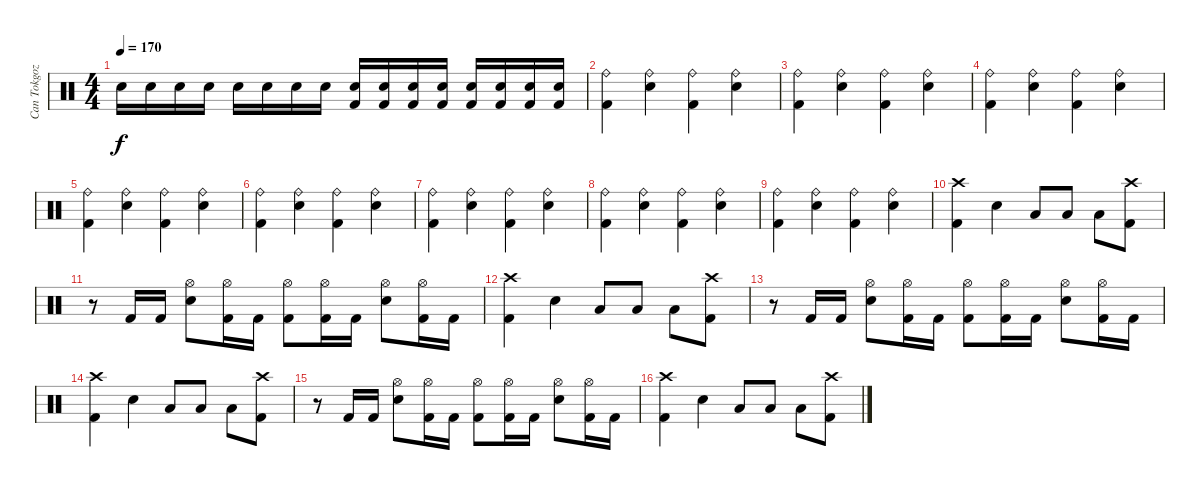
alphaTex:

\track ("Can Tokgoz" "Can Tokgoz") {instrument percussion}
\staff {score}
\articulation defaults
\ts (4 4)
\tempo 170
\clef neutral
\ks c "Snare (hit) 2".16{dy f} "Snare (hit) 2".16 "Snare (hit) 2".16 "Snare (hit) 2".16 "Snare (hit) 2".16 "Snare (hit) 2".16 "Snare (hit) 2".16 "Snare (hit) 2".16
("Snare (hit) 2" "Kick (hit) 2").16 ("Kick (hit) 2" "Snare (hit) 2").16 ("Kick (hit) 2" "Snare (hit) 2").16 ("Kick (hit) 2" "Snare (hit) 2").16 ("Kick (hit) 2" "Snare (hit) 2").16 ("Kick (hit) 2" "Snare (hit) 2").16 ("Kick (hit) 2" "Snare (hit) 2").16 ("Kick (hit) 2" "Snare (hit) 2").16 |
("Ride (bell)" "Kick (hit) 2").4 ("Ride (bell)" "Snare (hit) 2").4 ("Ride (bell)" "Kick (hit) 2").4 ("Ride (bell)" "Snare (hit) 2").4 |
("Ride (bell)" "Kick (hit) 2").4 ("Ride (bell)" "Snare (hit) 2").4 ("Ride (bell)" "Kick (hit) 2").4 ("Ride (bell)" "Snare (hit) 2").4 |
("Ride (bell)" "Kick (hit) 2").4 ("Ride (bell)" "Snare (hit) 2").4 ("Ride (bell)" "Kick (hit) 2").4 ("Ride (bell)" "Snare (hit) 2").4 |
("Ride (bell)" "Kick (hit) 2").4 ("Ride (bell)" "Snare (hit) 2").4 ("Ride (bell)" "Kick (hit) 2").4 ("Ride (bell)" "Snare (hit) 2").4 |
("Ride (bell)" "Kick (hit) 2").4 ("Ride (bell)" "Snare (hit) 2").4 ("Ride (bell)" "Kick (hit) 2").4 ("Ride (bell)" "Snare (hit) 2").4 |
("Ride (bell)" "Kick (hit) 2").4 ("Ride (bell)" "Snare (hit) 2").4 ("Ride (bell)" "Kick (hit) 2").4 ("Ride (bell)" "Snare (hit) 2").4 |
("Ride (bell)" "Kick (hit) 2").4 ("Ride (bell)" "Snare (hit) 2").4 ("Ride (bell)" "Kick (hit) 2").4 ("Ride (bell)" "Snare (hit) 2").4 |
("Ride (bell)" "Kick (hit) 2").4 ("Ride (bell)" "Snare (hit) 2").4 ("Ride (bell)" "Kick (hit) 2").4 ("Ride (bell)" "Snare (hit) 2").4 |
("Crash high (hit)" "Kick (hit) 2").4 "Snare (hit) 2".4 "Low Tom (hit)".8 "Low Tom (hit)".8 "Low Tom (hit)".8 ("Crash high (hit)" "Kick (hit) 2").8 |
r.8 "Kick (hit) 2".16 "Kick (hit) 2".16 ("Hi-Hat (open)" "Snare (hit) 2").8 ("Hi-Hat (open)" "Kick (hit) 2").16 "Kick (hit) 2".16 ("Hi-Hat (open)" "Kick (hit) 2").8 ("Hi-Hat (open)" "Kick (hit) 2").16 "Kick (hit) 2".16 ("Hi-Hat (open)" "Snare (hit) 2").8 ("Hi-Hat (open)" "Kick (hit) 2").16 "Kick (hit) 2".16 |
("Crash high (hit)" "Kick (hit) 2").4 "Snare (hit) 2".4 "Low Tom (hit)".8 "Low Tom (hit)".8 "Low Tom (hit)".8 ("Crash high (hit)" "Kick (hit) 2").8 |
r.8 "Kick (hit) 2".16 "Kick (hit) 2".16 ("Hi-Hat (open)" "Snare (hit) 2").8 ("Hi-Hat (open)" "Kick (hit) 2").16 "Kick (hit) 2".16 ("Hi-Hat (open)" "Kick (hit) 2").8 ("Hi-Hat (open)" "Kick (hit) 2").16 "Kick (hit) 2".16 ("Hi-Hat (open)" "Snare (hit) 2").8 ("Hi-Hat (open)" "Kick (hit) 2").16 "Kick (hit) 2".16 |
("Crash high (hit)" "Kick (hit) 2").4 "Snare (hit) 2".4 "Low Tom (hit)".8 "Low Tom (hit)".8 "Low Tom (hit)".8 ("Crash high (hit)" "Kick (hit) 2").8 |
r.8 "Kick (hit) 2".16 "Kick (hit) 2".16 ("Hi-Hat (open)" "Snare (hit) 2").8 ("Hi-Hat (open)" "Kick (hit) 2").16 "Kick (hit) 2".16 ("Hi-Hat (open)" "Kick (hit) 2").8 ("Hi-Hat (open)" "Kick (hit) 2").16 "Kick (hit) 2".16 ("Hi-Hat (open)" "Snare (hit) 2").8 ("Hi-Hat (open)" "Kick (hit) 2").16 "Kick (hit) 2".16 |
("Crash high (hit)" "Kick (hit) 2").4 "Snare (hit) 2".4 "Low Tom (hit)".8 "Low Tom (hit)".8 "Low Tom (hit)".8 ("Crash high (hit)" "Kick (hit) 2").8
